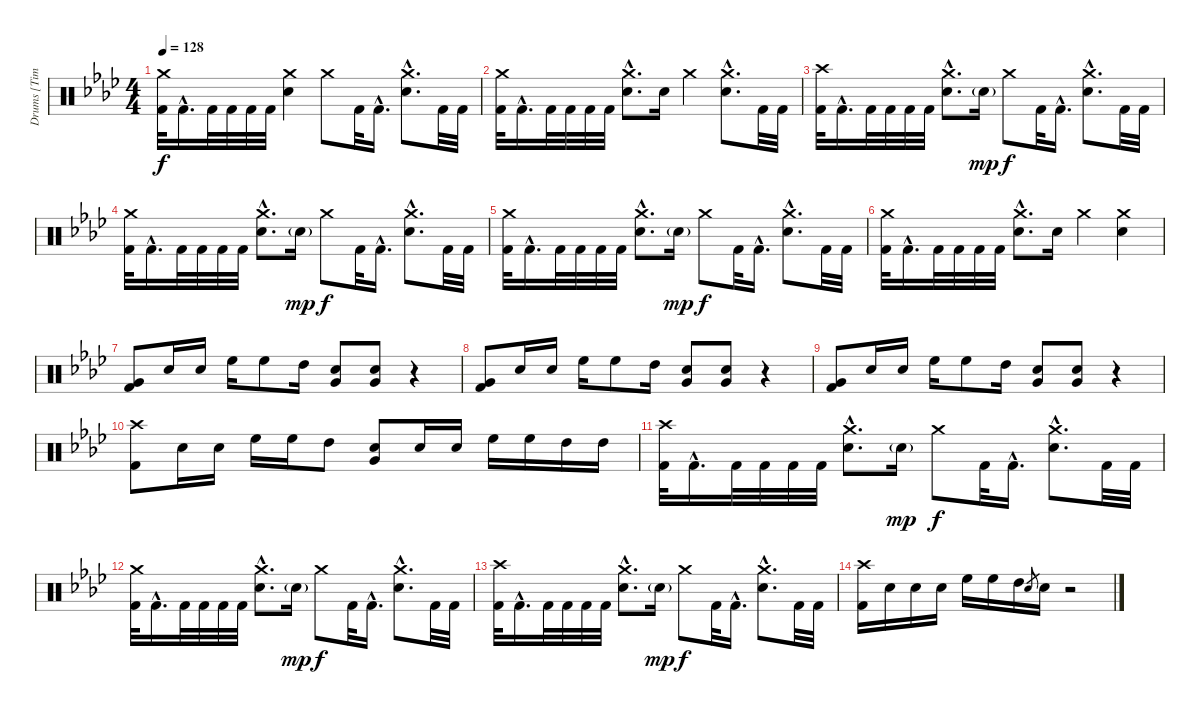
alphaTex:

\track ("Drums [Tim Alexander]" "Drums [Tim") {instrument percussion}
\staff {score}
\articulation defaults
\ts (4 4)
\tempo 128
\clef neutral
\ks ab
("Crash medium (hit)" "Kick (hit) 2").32{dy f} "Kick (hit) 2"{hac}.16{d} "Kick (hit) 2".32 "Kick (hit) 2".32 "Kick (hit) 2".32 "Kick (hit) 2".32 ("Crash medium (hit)" "Electric Snare (hit)").4 "Crash medium (hit)".8 "Kick (hit) 2".32 "Kick (hit) 2"{hac}.16{d} ("Crash medium (hit)"{hac} "Electric Snare (hit)"{hac}).8{d} "Kick (hit) 2".32 "Kick (hit) 2".32 |
("Crash medium (hit)" "Kick (hit) 2").32 "Kick (hit) 2"{hac}.16{d} "Kick (hit) 2".32 "Kick (hit) 2".32 "Kick (hit) 2".32 "Kick (hit) 2".32 ("Crash medium (hit)"{hac} "Electric Snare (hit)"{hac}).8{d} "Electric Snare (hit)".16 "Crash medium (hit)".4 ("Crash medium (hit)"{hac} "Electric Snare (hit)"{hac}).8{d} "Kick (hit) 2".32 "Kick (hit) 2".32 |
("Crash high (hit)" "Kick (hit) 2").32 "Kick (hit) 2"{hac}.16{d} "Kick (hit) 2".32 "Kick (hit) 2".32 "Kick (hit) 2".32 "Kick (hit) 2".32 ("Crash medium (hit)"{hac} "Electric Snare (hit)"{hac}).8{d} "Electric Snare (hit)"{g}.16{dy mp} "Crash medium (hit)".8{dy f} "Kick (hit) 2".32 "Kick (hit) 2"{hac}.16{d} ("Crash medium (hit)"{hac} "Electric Snare (hit)"{hac}).8{d} "Kick (hit) 2".32 "Kick (hit) 2".32 |
("Crash medium (hit)" "Kick (hit) 2").32 "Kick (hit) 2"{hac}.16{d} "Kick (hit) 2".32 "Kick (hit) 2".32 "Kick (hit) 2".32 "Kick (hit) 2".32 ("Crash medium (hit)"{hac} "Electric Snare (hit)"{hac}).8{d} "Electric Snare (hit)"{g}.16{dy mp} "Crash medium (hit)".8{dy f} "Kick (hit) 2".32 "Kick (hit) 2"{hac}.16{d} ("Crash medium (hit)"{hac} "Electric Snare (hit)"{hac}).8{d} "Kick (hit) 2".32 "Kick (hit) 2".32 |
("Crash medium (hit)" "Kick (hit) 2").32 "Kick (hit) 2"{hac}.16{d} "Kick (hit) 2".32 "Kick (hit) 2".32 "Kick (hit) 2".32 "Kick (hit) 2".32 ("Crash medium (hit)"{hac} "Electric Snare (hit)"{hac}).8{d} "Electric Snare (hit)"{g}.16{dy mp} "Crash medium (hit)".8{dy f} "Kick (hit) 2".32 "Kick (hit) 2"{hac}.16{d} ("Crash medium (hit)"{hac} "Electric Snare (hit)"{hac}).8{d} "Kick (hit) 2".32 "Kick (hit) 2".32 |
("Crash medium (hit)" "Kick (hit) 2").32 "Kick (hit) 2"{hac}.16{d} "Kick (hit) 2".32 "Kick (hit) 2".32 "Kick (hit) 2".32 "Kick (hit) 2".32 ("Crash medium (hit)"{hac} "Electric Snare (hit)"{hac}).8{d} "Electric Snare (hit)".16 "Crash medium (hit)".4 ("Crash medium (hit)" "Electric Snare (hit)").4 |
("Very Low Tom (hit)" "Kick (hit) 2").8 "Electric Snare (hit)".16 "Electric Snare (hit)".16 "High Floor Tom (hit)".16 "High Floor Tom (hit)".8 "High Tom (hit)".16 ("Very Low Tom (hit)" "Electric Snare (hit)").8 ("Very Low Tom (hit)" "Electric Snare (hit)").8 r.4 |
("Very Low Tom (hit)" "Kick (hit) 2").8 "Electric Snare (hit)".16 "Electric Snare (hit)".16 "High Floor Tom (hit)".16 "High Floor Tom (hit)".8 "High Tom (hit)".16 ("Very Low Tom (hit)" "Electric Snare (hit)").8 ("Very Low Tom (hit)" "Electric Snare (hit)").8 r.4 |
("Very Low Tom (hit)" "Kick (hit) 2").8 "Electric Snare (hit)".16 "Electric Snare (hit)".16 "High Floor Tom (hit)".16 "High Floor Tom (hit)".8 "High Tom (hit)".16 ("Very Low Tom (hit)" "Electric Snare (hit)").8 ("Very Low Tom (hit)" "Electric Snare (hit)").8 r.4 |
("Crash high (hit)" "Kick (hit) 2").8 "Electric Snare (hit)".16 "Electric Snare (hit)".16 "High Floor Tom (hit)".16 "High Floor Tom (hit)".16 "High Tom (hit)".8 ("Very Low Tom (hit)" "Electric Snare (hit)").8 "Electric Snare (hit)".16 "Electric Snare (hit)".16 "High Floor Tom (hit)".16 "High Floor Tom (hit)".16 "High Tom (hit)".16 "High Tom (hit)".16 |
("Crash high (hit)" "Kick (hit) 2").32 "Kick (hit) 2"{hac}.16{d} "Kick (hit) 2".32 "Kick (hit) 2".32 "Kick (hit) 2".32 "Kick (hit) 2".32 ("Crash medium (hit)"{hac} "Electric Snare (hit)"{hac}).8{d} "Electric Snare (hit)"{g}.16{dy mp} "Crash medium (hit)".8{dy f} "Kick (hit) 2".32 "Kick (hit) 2"{hac}.16{d} ("Crash medium (hit)"{hac} "Electric Snare (hit)"{hac}).8{d} "Kick (hit) 2".32 "Kick (hit) 2".32 |
("Crash medium (hit)" "Kick (hit) 2").32 "Kick (hit) 2"{hac}.16{d} "Kick (hit) 2".32 "Kick (hit) 2".32 "Kick (hit) 2".32 "Kick (hit) 2".32 ("Crash medium (hit)"{hac} "Electric Snare (hit)"{hac}).8{d} "Electric Snare (hit)"{g}.16{dy mp} "Crash medium (hit)".8{dy f} "Kick (hit) 2".32 "Kick (hit) 2"{hac}.16{d} ("Crash medium (hit)"{hac} "Electric Snare (hit)"{hac}).8{d} "Kick (hit) 2".32 "Kick (hit) 2".32 |
("Crash high (hit)" "Kick (hit) 2").32 "Kick (hit) 2"{hac}.16{d} "Kick (hit) 2".32 "Kick (hit) 2".32 "Kick (hit) 2".32 "Kick (hit) 2".32 ("Crash medium (hit)"{hac} "Electric Snare (hit)"{hac}).8{d} "Electric Snare (hit)"{g}.16{dy mp} "Crash medium (hit)".8{dy f} "Kick (hit) 2".32 "Kick (hit) 2"{hac}.16{d} ("Crash medium (hit)"{hac} "Electric Snare (hit)"{hac}).8{d} "Kick (hit) 2".32 "Kick (hit) 2".32 |
("Crash high (hit)" "Kick (hit) 2").16 "Electric Snare (hit)".16 "Electric Snare (hit)".16 "Electric Snare (hit)".16 "High Floor Tom (hit)".16 "High Floor Tom (hit)".16 "High Tom (hit)".16 "Electric Snare (hit)".8{gr} "Electric Snare (hit)".16 r.2
